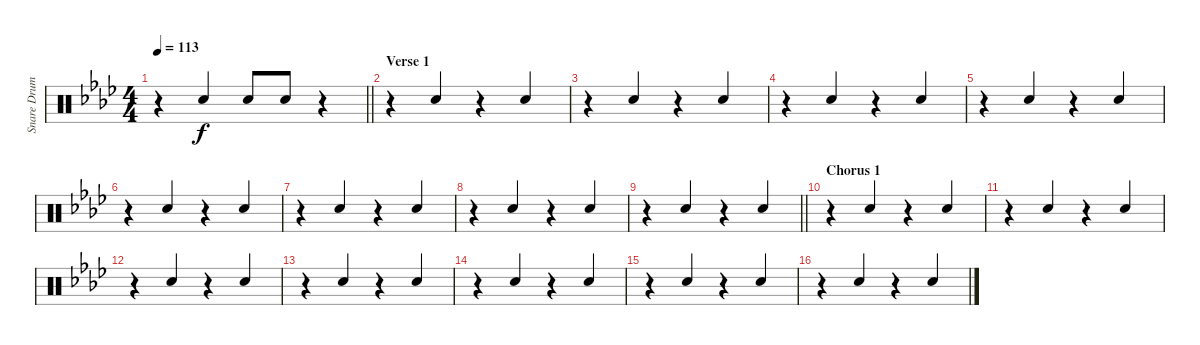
\track ("Snare Drum - reverb" "Snare Drum") {instrument percussion}
\staff {score}
\articulation defaults
\ts (4 4)
\tempo 113
\clef neutral
\barLineRight lightlight
\ks fminor
r.4{dy f} "Snare (hit) 2".4{beam Up} "Snare (hit) 2".8{beam Up} "Snare (hit) 2".8{beam Up} r.4 |
\section ("" "Verse 1")
r.4 "Snare (hit) 2".4{beam Up} r.4 "Snare (hit) 2".4{beam Up} |
r.4 "Snare (hit) 2".4{beam Up} r.4 "Snare (hit) 2".4{beam Up} |
r.4 "Snare (hit) 2".4{beam Up} r.4 "Snare (hit) 2".4{beam Up} |
r.4 "Snare (hit) 2".4{beam Up} r.4 "Snare (hit) 2".4{beam Up} |
r.4 "Snare (hit) 2".4{beam Up} r.4 "Snare (hit) 2".4{beam Up} |
r.4 "Snare (hit) 2".4{beam Up} r.4 "Snare (hit) 2".4{beam Up} |
r.4 "Snare (hit) 2".4{beam Up} r.4 "Snare (hit) 2".4{beam Up} |
\barLineRight lightlight
r.4 "Snare (hit) 2".4{beam Up} r.4 "Snare (hit) 2".4{beam Up} |
\section ("" "Chorus 1")
r.4 "Snare (hit) 2".4{beam Up} r.4 "Snare (hit) 2".4{beam Up} |
r.4 "Snare (hit) 2".4{beam Up} r.4 "Snare (hit) 2".4{beam Up} |
r.4 "Snare (hit) 2".4{beam Up} r.4 "Snare (hit) 2".4{beam Up} |
r.4 "Snare (hit) 2".4{beam Up} r.4 "Snare (hit) 2".4{beam Up} |
r.4 "Snare (hit) 2".4{beam Up} r.4 "Snare (hit) 2".4{beam Up} |
r.4 "Snare (hit) 2".4{beam Up} r.4 "Snare (hit) 2".4{beam Up} |
r.4 "Snare (hit) 2".4{beam Up} r.4 "Snare (hit) 2".4{beam Up}
